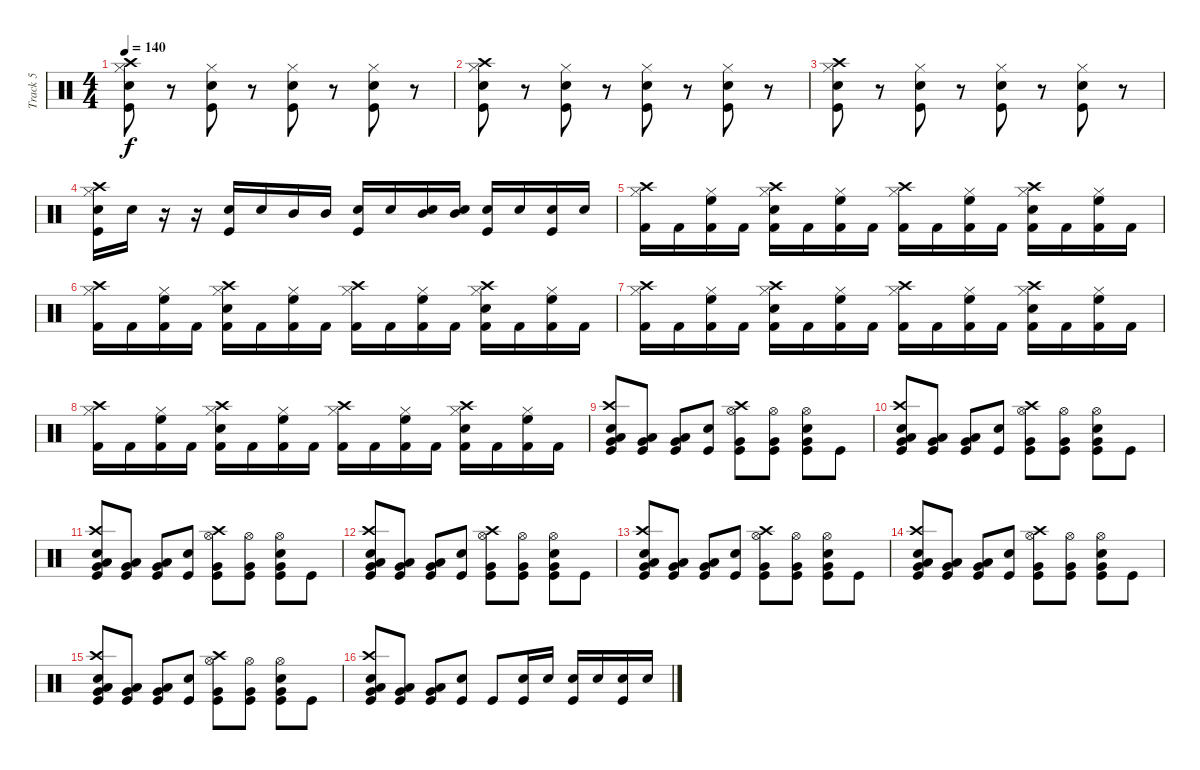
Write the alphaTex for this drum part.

\track ("Track 5" "Track 5") {instrument percussion}
\staff {score}
\articulation defaults
\ts (4 4)
\tempo 140
\clef neutral
\ks c
("Electric Snare (hit)" "Kick (hit)" "Hi-Hat (closed)" "Crash high (hit)").8{dy f} r.8 ("Electric Snare (hit)" "Kick (hit)" "Hi-Hat (closed)").8 r.8 ("Electric Snare (hit)" "Kick (hit)" "Hi-Hat (closed)").8 r.8 ("Electric Snare (hit)" "Kick (hit)" "Hi-Hat (closed)").8 r.8 |
("Electric Snare (hit)" "Kick (hit)" "Hi-Hat (closed)" "Crash high (hit)").8 r.8 ("Electric Snare (hit)" "Kick (hit)" "Hi-Hat (closed)").8 r.8 ("Electric Snare (hit)" "Kick (hit)" "Hi-Hat (closed)").8 r.8 ("Electric Snare (hit)" "Kick (hit)" "Hi-Hat (closed)").8 r.8 |
("Electric Snare (hit)" "Kick (hit)" "Hi-Hat (closed)" "Crash high (hit)").8 r.8 ("Electric Snare (hit)" "Kick (hit)" "Hi-Hat (closed)").8 r.8 ("Electric Snare (hit)" "Kick (hit)" "Hi-Hat (closed)").8 r.8 ("Electric Snare (hit)" "Kick (hit)" "Hi-Hat (closed)").8 r.8 |
("Electric Snare (hit)" "Kick (hit)" "Hi-Hat (closed)" "Crash high (hit)").16 "Electric Snare (hit)".16 r.16 r.16 ("Electric Snare (hit)" "Kick (hit)").16 "Electric Snare (hit)".16 "Mid Tom (hit)".16 "Mid Tom (hit)".16 ("Electric Snare (hit)" "Kick (hit)").16 "Electric Snare (hit)".16 ("Electric Snare (hit)" "Mid Tom (hit)").16 ("Electric Snare (hit)" "Mid Tom (hit)").16 ("Electric Snare (hit)" "Kick (hit)").16 "Electric Snare (hit)".16 ("Electric Snare (hit)" "Kick (hit)").16 "Electric Snare (hit)".16 |
("Crash high (hit)" "Kick (hit) 2" "Hi-Hat (closed)").16 "Kick (hit) 2".16 ("Hi-Hat (closed)" "High Floor Tom (hit)" "Kick (hit) 2").16 "Kick (hit) 2".16 ("Electric Snare (hit)" "Kick (hit) 2" "Crash high (hit)" "Hi-Hat (closed)").16 "Kick (hit) 2".16 ("Hi-Hat (closed)" "High Floor Tom (hit)" "Kick (hit) 2").16 "Kick (hit) 2".16 ("Kick (hit) 2" "Crash high (hit)" "Hi-Hat (closed)").16 "Kick (hit) 2".16 ("Hi-Hat (closed)" "High Floor Tom (hit)" "Kick (hit) 2").16 "Kick (hit) 2".16 ("Electric Snare (hit)" "Kick (hit) 2" "Crash high (hit)" "Hi-Hat (closed)").16 "Kick (hit) 2".16 ("Hi-Hat (closed)" "High Floor Tom (hit)" "Kick (hit) 2").16 "Kick (hit) 2".16 |
("Crash high (hit)" "Kick (hit) 2" "Hi-Hat (closed)").16 "Kick (hit) 2".16 ("Hi-Hat (closed)" "High Floor Tom (hit)" "Kick (hit) 2").16 "Kick (hit) 2".16 ("Electric Snare (hit)" "Kick (hit) 2" "Crash high (hit)" "Hi-Hat (closed)").16 "Kick (hit) 2".16 ("Hi-Hat (closed)" "High Floor Tom (hit)" "Kick (hit) 2").16 "Kick (hit) 2".16 ("Kick (hit) 2" "Crash high (hit)" "Hi-Hat (closed)").16 "Kick (hit) 2".16 ("Hi-Hat (closed)" "High Floor Tom (hit)" "Kick (hit) 2").16 "Kick (hit) 2".16 ("Electric Snare (hit)" "Kick (hit) 2" "Crash high (hit)" "Hi-Hat (closed)").16 "Kick (hit) 2".16 ("Hi-Hat (closed)" "High Floor Tom (hit)" "Kick (hit) 2").16 "Kick (hit) 2".16 |
("Crash high (hit)" "Kick (hit) 2" "Hi-Hat (closed)").16 "Kick (hit) 2".16 ("Hi-Hat (closed)" "High Floor Tom (hit)" "Kick (hit) 2").16 "Kick (hit) 2".16 ("Electric Snare (hit)" "Kick (hit) 2" "Crash high (hit)" "Hi-Hat (closed)").16 "Kick (hit) 2".16 ("Hi-Hat (closed)" "High Floor Tom (hit)" "Kick (hit) 2").16 "Kick (hit) 2".16 ("Kick (hit) 2" "Crash high (hit)" "Hi-Hat (closed)").16 "Kick (hit) 2".16 ("Hi-Hat (closed)" "High Floor Tom (hit)" "Kick (hit) 2").16 "Kick (hit) 2".16 ("Electric Snare (hit)" "Kick (hit) 2" "Crash high (hit)" "Hi-Hat (closed)").16 "Kick (hit) 2".16 ("Hi-Hat (closed)" "High Floor Tom (hit)" "Kick (hit) 2").16 "Kick (hit) 2".16 |
("Crash high (hit)" "Kick (hit) 2" "Hi-Hat (closed)").16 "Kick (hit) 2".16 ("Hi-Hat (closed)" "High Floor Tom (hit)" "Kick (hit) 2").16 "Kick (hit) 2".16 ("Electric Snare (hit)" "Kick (hit) 2" "Crash high (hit)" "Hi-Hat (closed)").16 "Kick (hit) 2".16 ("Hi-Hat (closed)" "High Floor Tom (hit)" "Kick (hit) 2").16 "Kick (hit) 2".16 ("Kick (hit) 2" "Crash high (hit)" "Hi-Hat (closed)").16 "Kick (hit) 2".16 ("Hi-Hat (closed)" "High Floor Tom (hit)" "Kick (hit) 2").16 "Kick (hit) 2".16 ("Electric Snare (hit)" "Kick (hit) 2" "Crash high (hit)" "Hi-Hat (closed)").16 "Kick (hit) 2".16 ("Hi-Hat (closed)" "High Floor Tom (hit)" "Kick (hit) 2").16 "Kick (hit) 2".16 |
("Kick (hit)" "Low Tom (hit)" "Crash high (hit)" "Electric Snare (hit)" "Very Low Tom (hit)").8 ("Kick (hit)" "Low Tom (hit)" "Very Low Tom (hit)").8 ("Kick (hit)" "Low Tom (hit)" "Very Low Tom (hit)").8 ("Electric Snare (hit)" "Kick (hit)").8 ("Kick (hit)" "Crash high (hit)" "Very Low Tom (hit)" "Hi-Hat (open)").8 ("Kick (hit)" "Very Low Tom (hit)" "Hi-Hat (open)").8 ("Electric Snare (hit)" "Kick (hit)" "Very Low Tom (hit)" "Hi-Hat (open)").8 "Kick (hit)".8 |
("Kick (hit)" "Low Tom (hit)" "Crash high (hit)" "Electric Snare (hit)" "Very Low Tom (hit)").8 ("Kick (hit)" "Low Tom (hit)" "Very Low Tom (hit)").8 ("Kick (hit)" "Low Tom (hit)" "Very Low Tom (hit)").8 ("Electric Snare (hit)" "Kick (hit)").8 ("Kick (hit)" "Crash high (hit)" "Very Low Tom (hit)" "Hi-Hat (open)").8 ("Kick (hit)" "Very Low Tom (hit)" "Hi-Hat (open)").8 ("Electric Snare (hit)" "Kick (hit)" "Very Low Tom (hit)" "Hi-Hat (open)").8 "Kick (hit)".8 |
("Kick (hit)" "Low Tom (hit)" "Crash high (hit)" "Electric Snare (hit)" "Very Low Tom (hit)").8 ("Kick (hit)" "Low Tom (hit)" "Very Low Tom (hit)").8 ("Kick (hit)" "Low Tom (hit)" "Very Low Tom (hit)").8 ("Electric Snare (hit)" "Kick (hit)").8 ("Kick (hit)" "Crash high (hit)" "Very Low Tom (hit)" "Hi-Hat (open)").8 ("Kick (hit)" "Very Low Tom (hit)" "Hi-Hat (open)").8 ("Electric Snare (hit)" "Kick (hit)" "Very Low Tom (hit)" "Hi-Hat (open)").8 "Kick (hit)".8 |
("Kick (hit)" "Low Tom (hit)" "Crash high (hit)" "Electric Snare (hit)" "Very Low Tom (hit)").8 ("Kick (hit)" "Low Tom (hit)" "Very Low Tom (hit)").8 ("Kick (hit)" "Low Tom (hit)" "Very Low Tom (hit)").8 ("Electric Snare (hit)" "Kick (hit)").8 ("Kick (hit)" "Crash high (hit)" "Very Low Tom (hit)" "Hi-Hat (open)").8 ("Kick (hit)" "Very Low Tom (hit)" "Hi-Hat (open)").8 ("Electric Snare (hit)" "Kick (hit)" "Very Low Tom (hit)" "Hi-Hat (open)").8 "Kick (hit)".8 |
("Kick (hit)" "Low Tom (hit)" "Crash high (hit)" "Electric Snare (hit)" "Very Low Tom (hit)").8 ("Kick (hit)" "Low Tom (hit)" "Very Low Tom (hit)").8 ("Kick (hit)" "Low Tom (hit)" "Very Low Tom (hit)").8 ("Electric Snare (hit)" "Kick (hit)").8 ("Kick (hit)" "Crash high (hit)" "Very Low Tom (hit)" "Hi-Hat (open)").8 ("Kick (hit)" "Very Low Tom (hit)" "Hi-Hat (open)").8 ("Electric Snare (hit)" "Kick (hit)" "Very Low Tom (hit)" "Hi-Hat (open)").8 "Kick (hit)".8 |
("Kick (hit)" "Low Tom (hit)" "Crash high (hit)" "Electric Snare (hit)" "Very Low Tom (hit)").8 ("Kick (hit)" "Low Tom (hit)" "Very Low Tom (hit)").8 ("Kick (hit)" "Low Tom (hit)" "Very Low Tom (hit)").8 ("Electric Snare (hit)" "Kick (hit)").8 ("Kick (hit)" "Crash high (hit)" "Very Low Tom (hit)" "Hi-Hat (open)").8 ("Kick (hit)" "Very Low Tom (hit)" "Hi-Hat (open)").8 ("Electric Snare (hit)" "Kick (hit)" "Very Low Tom (hit)" "Hi-Hat (open)").8 "Kick (hit)".8 |
("Kick (hit)" "Low Tom (hit)" "Crash high (hit)" "Electric Snare (hit)" "Very Low Tom (hit)").8 ("Kick (hit)" "Low Tom (hit)" "Very Low Tom (hit)").8 ("Kick (hit)" "Low Tom (hit)" "Very Low Tom (hit)").8 ("Electric Snare (hit)" "Kick (hit)").8 ("Kick (hit)" "Crash high (hit)" "Very Low Tom (hit)" "Hi-Hat (open)").8 ("Kick (hit)" "Very Low Tom (hit)" "Hi-Hat (open)").8 ("Electric Snare (hit)" "Kick (hit)" "Very Low Tom (hit)" "Hi-Hat (open)").8 "Kick (hit)".8 |
("Kick (hit)" "Low Tom (hit)" "Crash high (hit)" "Electric Snare (hit)" "Very Low Tom (hit)").8 ("Kick (hit)" "Low Tom (hit)" "Very Low Tom (hit)").8 ("Kick (hit)" "Low Tom (hit)" "Very Low Tom (hit)").8 ("Electric Snare (hit)" "Kick (hit)").8 "Kick (hit)".8 ("Kick (hit)" "Electric Snare (hit)").16 "Electric Snare (hit)".16 ("Electric Snare (hit)" "Kick (hit)").16 "Electric Snare (hit)".16 ("Kick (hit)" "Electric Snare (hit)").16 "Electric Snare (hit)".16
